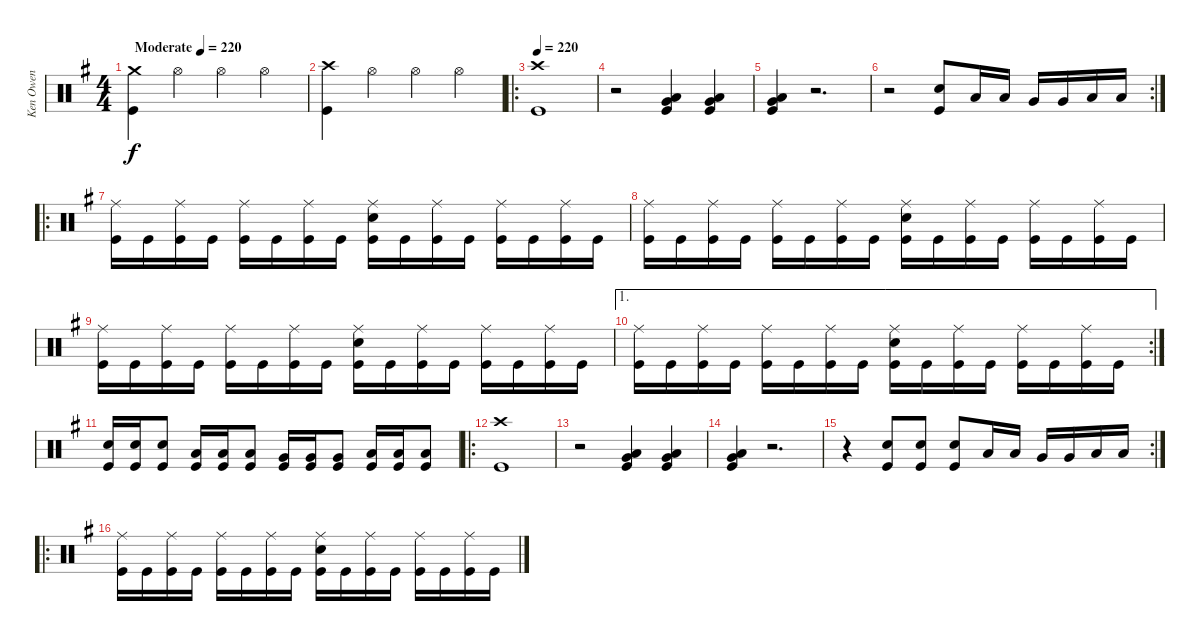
\track ("Ken Owen" "Ken Owen") {instrument percussion}
\staff {score}
\articulation defaults
\ts (4 4)
\tempo (220 "Moderate")
\tempo 170
\tempo (220 "Moderate")
\clef neutral
\ks g
("Crash medium (hit)" "Kick (hit)").4{dy f} "Hi-Hat (open)".4 "Hi-Hat (open)".4 "Hi-Hat (open)".4 |
("Crash high (hit)" "Kick (hit)").4 "Hi-Hat (open)".4 "Hi-Hat (open)".4 "Hi-Hat (open)".4 |
\ro
\tempo 220
("Crash high (hit)" "Kick (hit)").1 |
r.2 ("Low Tom (hit)" "Very Low Tom (hit)" "Kick (hit)").4 ("Low Tom (hit)" "Very Low Tom (hit)" "Kick (hit)").4 |
("Low Tom (hit)" "Very Low Tom (hit)" "Kick (hit)").4 r.2{d} |
\rc 2
r.2 ("Snare (hit) 2" "Kick (hit)").8 "Low Tom (hit)".16 "Low Tom (hit)".16 "Very Low Tom (hit)".16 "Very Low Tom (hit)".16 "Low Floor Tom (hit)".16 "Low Floor Tom (hit)".16 |
\ro
("Ride (middle)" "Kick (hit)").16 "Kick (hit)".16 ("Ride (middle)" "Kick (hit)").16 "Kick (hit)".16 ("Ride (middle)" "Kick (hit)").16 "Kick (hit)".16 ("Ride (middle)" "Kick (hit)").16 "Kick (hit)".16 ("Ride (middle)" "Snare (hit) 2" "Kick (hit)").16 "Kick (hit)".16 ("Ride (middle)" "Kick (hit)").16 "Kick (hit)".16 ("Ride (middle)" "Kick (hit)").16 "Kick (hit)".16 ("Ride (middle)" "Kick (hit)").16 "Kick (hit)".16 |
("Ride (middle)" "Kick (hit)").16 "Kick (hit)".16 ("Ride (middle)" "Kick (hit)").16 "Kick (hit)".16 ("Ride (middle)" "Kick (hit)").16 "Kick (hit)".16 ("Ride (middle)" "Kick (hit)").16 "Kick (hit)".16 ("Ride (middle)" "Snare (hit) 2" "Kick (hit)").16 "Kick (hit)".16 ("Ride (middle)" "Kick (hit)").16 "Kick (hit)".16 ("Ride (middle)" "Kick (hit)").16 "Kick (hit)".16 ("Ride (middle)" "Kick (hit)").16 "Kick (hit)".16 |
("Ride (middle)" "Kick (hit)").16 "Kick (hit)".16 ("Ride (middle)" "Kick (hit)").16 "Kick (hit)".16 ("Ride (middle)" "Kick (hit)").16 "Kick (hit)".16 ("Ride (middle)" "Kick (hit)").16 "Kick (hit)".16 ("Ride (middle)" "Snare (hit) 2" "Kick (hit)").16 "Kick (hit)".16 ("Ride (middle)" "Kick (hit)").16 "Kick (hit)".16 ("Ride (middle)" "Kick (hit)").16 "Kick (hit)".16 ("Ride (middle)" "Kick (hit)").16 "Kick (hit)".16 |
\ae 1
\rc 2
("Ride (middle)" "Kick (hit)").16 "Kick (hit)".16 ("Ride (middle)" "Kick (hit)").16 "Kick (hit)".16 ("Ride (middle)" "Kick (hit)").16 "Kick (hit)".16 ("Ride (middle)" "Kick (hit)").16 "Kick (hit)".16 ("Ride (middle)" "Snare (hit) 2" "Kick (hit)").16 "Kick (hit)".16 ("Ride (middle)" "Kick (hit)").16 "Kick (hit)".16 ("Ride (middle)" "Kick (hit)").16 "Kick (hit)".16 ("Ride (middle)" "Kick (hit)").16 "Kick (hit)".16 |
("Snare (hit) 2" "Kick (hit)").16 ("Snare (hit) 2" "Kick (hit)").16 ("Snare (hit) 2" "Kick (hit)").8 ("Low Tom (hit)" "Kick (hit)").16 ("Low Tom (hit)" "Kick (hit)").16 ("Low Tom (hit)" "Kick (hit)").8 ("Very Low Tom (hit)" "Kick (hit)").16 ("Very Low Tom (hit)" "Kick (hit)").16 ("Very Low Tom (hit)" "Kick (hit)").8 ("Low Floor Tom (hit)" "Kick (hit)").16 ("Low Floor Tom (hit)" "Kick (hit)").16 ("Low Floor Tom (hit)" "Kick (hit)").8 |
\ro
("Crash high (hit)" "Kick (hit)").1 |
r.2 ("Low Tom (hit)" "Very Low Tom (hit)" "Kick (hit)").4 ("Low Tom (hit)" "Very Low Tom (hit)" "Kick (hit)").4 |
("Low Tom (hit)" "Very Low Tom (hit)" "Kick (hit)").4 r.2{d} |
\rc 2
r.4 ("Snare (hit) 2" "Kick (hit)").8 ("Snare (hit) 2" "Kick (hit)").8 ("Snare (hit) 2" "Kick (hit)").8 "Low Tom (hit)".16 "Low Tom (hit)".16 "Very Low Tom (hit)".16 "Very Low Tom (hit)".16 "Low Floor Tom (hit)".16 "Low Floor Tom (hit)".16 |
\ro
("Ride (middle)" "Kick (hit)").16 "Kick (hit)".16 ("Ride (middle)" "Kick (hit)").16 "Kick (hit)".16 ("Ride (middle)" "Kick (hit)").16 "Kick (hit)".16 ("Ride (middle)" "Kick (hit)").16 "Kick (hit)".16 ("Ride (middle)" "Snare (hit) 2" "Kick (hit)").16 "Kick (hit)".16 ("Ride (middle)" "Kick (hit)").16 "Kick (hit)".16 ("Ride (middle)" "Kick (hit)").16 "Kick (hit)".16 ("Ride (middle)" "Kick (hit)").16 "Kick (hit)".16
